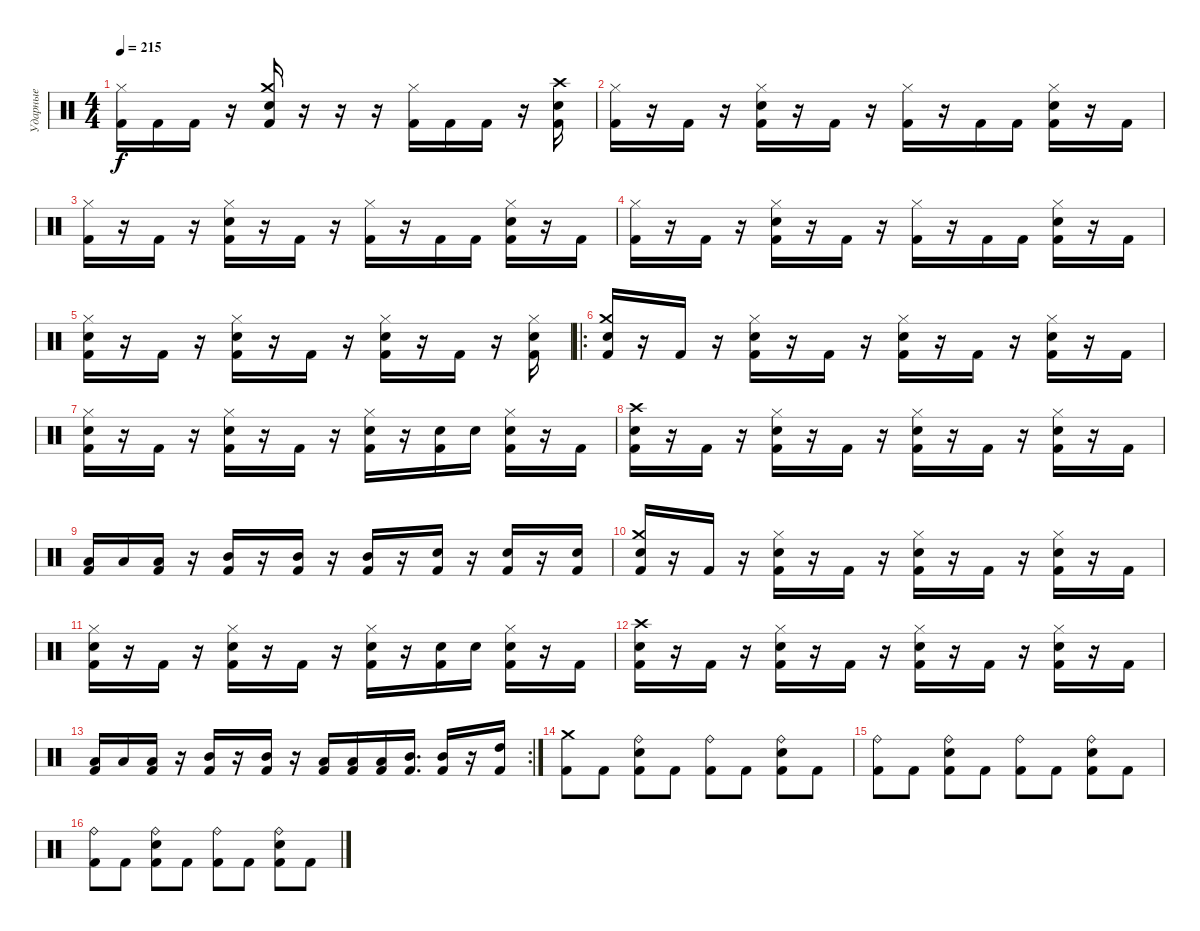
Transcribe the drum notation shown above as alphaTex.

\track ("Ударные" "Ударные") {instrument percussion}
\staff {score}
\articulation defaults
\ts (4 4)
\tempo 215
\clef neutral
\ks c
("Hi-Hat (closed)" "Kick (hit) 2").16{dy f} "Kick (hit) 2".16 "Kick (hit) 2".16 r.16 ("Crash medium (hit)" "Snare (hit) 2" "Kick (hit) 2").16 r.16 r.16 r.16 ("Hi-Hat (closed)" "Kick (hit) 2").16 "Kick (hit) 2".16 "Kick (hit) 2".16 r.16 ("Crash high (hit)" "Snare (hit) 2" "Kick (hit) 2").16 |
("Hi-Hat (closed)" "Kick (hit) 2").16 r.16 "Kick (hit) 2".16 r.16 ("Hi-Hat (closed)" "Snare (hit) 2" "Kick (hit) 2").16 r.16 "Kick (hit) 2".16 r.16 ("Hi-Hat (closed)" "Kick (hit) 2").16 r.16 "Kick (hit) 2".16 "Kick (hit) 2".16 ("Hi-Hat (closed)" "Snare (hit) 2" "Kick (hit) 2").16 r.16 "Kick (hit) 2".16 |
("Hi-Hat (closed)" "Kick (hit) 2").16 r.16 "Kick (hit) 2".16 r.16 ("Hi-Hat (closed)" "Snare (hit) 2" "Kick (hit) 2").16 r.16 "Kick (hit) 2".16 r.16 ("Hi-Hat (closed)" "Kick (hit) 2").16 r.16 "Kick (hit) 2".16 "Kick (hit) 2".16 ("Hi-Hat (closed)" "Snare (hit) 2" "Kick (hit) 2").16 r.16 "Kick (hit) 2".16 |
("Hi-Hat (closed)" "Kick (hit) 2").16 r.16 "Kick (hit) 2".16 r.16 ("Hi-Hat (closed)" "Snare (hit) 2" "Kick (hit) 2").16 r.16 "Kick (hit) 2".16 r.16 ("Hi-Hat (closed)" "Kick (hit) 2").16 r.16 "Kick (hit) 2".16 "Kick (hit) 2".16 ("Hi-Hat (closed)" "Snare (hit) 2" "Kick (hit) 2").16 r.16 "Kick (hit) 2".16 |
("Hi-Hat (closed)" "Snare (hit) 2" "Kick (hit) 2").16 r.16 "Kick (hit) 2".16 r.16 ("Hi-Hat (closed)" "Snare (hit) 2" "Kick (hit) 2").16 r.16 "Kick (hit) 2".16 r.16 ("Hi-Hat (closed)" "Snare (hit) 2" "Kick (hit) 2").16 r.16 "Kick (hit) 2".16 r.16 ("Hi-Hat (closed)" "Snare (hit) 2" "Kick (hit) 2").16 |
\ro
("Crash medium (hit)" "Snare (hit) 2" "Kick (hit) 2").16 r.16 "Kick (hit) 2".16 r.16 ("Hi-Hat (closed)" "Snare (hit) 2" "Kick (hit) 2").16 r.16 "Kick (hit) 2".16 r.16 ("Hi-Hat (closed)" "Snare (hit) 2" "Kick (hit) 2").16 r.16 "Kick (hit) 2".16 r.16 ("Hi-Hat (closed)" "Snare (hit) 2" "Kick (hit) 2").16 r.16 "Kick (hit) 2".16 |
("Hi-Hat (closed)" "Snare (hit) 2" "Kick (hit) 2").16 r.16 "Kick (hit) 2".16 r.16 ("Hi-Hat (closed)" "Snare (hit) 2" "Kick (hit) 2").16 r.16 "Kick (hit) 2".16 r.16 ("Hi-Hat (closed)" "Snare (hit) 2" "Kick (hit) 2").16 r.16 ("Snare (hit) 2" "Kick (hit) 2").16 "Snare (hit) 2".16 ("Hi-Hat (closed)" "Snare (hit) 2" "Kick (hit) 2").16 r.16 "Kick (hit) 2".16 |
("Crash high (hit)" "Snare (hit) 2" "Kick (hit) 2").16 r.16 "Kick (hit) 2".16 r.16 ("Hi-Hat (closed)" "Snare (hit) 2" "Kick (hit) 2").16 r.16 "Kick (hit) 2".16 r.16 ("Hi-Hat (closed)" "Snare (hit) 2" "Kick (hit) 2").16 r.16 "Kick (hit) 2".16 r.16 ("Hi-Hat (closed)" "Snare (hit) 2" "Kick (hit) 2").16 r.16 "Kick (hit) 2".16 |
("Low Tom (hit)" "Kick (hit) 2").16 "Low Tom (hit)".16 ("Low Tom (hit)" "Kick (hit) 2").16 r.16 ("Mid Tom (hit)" "Kick (hit) 2").16 r.16 ("Mid Tom (hit)" "Kick (hit) 2").16 r.16 ("Mid Tom (hit)" "Kick (hit) 2").16 r.16 ("Snare (hit) 2" "Kick (hit) 2").16 r.16 ("Snare (hit) 2" "Kick (hit) 2").16 r.16 ("Snare (hit) 2" "Kick (hit) 2").16 |
("Crash medium (hit)" "Snare (hit) 2" "Kick (hit) 2").16 r.16 "Kick (hit) 2".16 r.16 ("Hi-Hat (closed)" "Snare (hit) 2" "Kick (hit) 2").16 r.16 "Kick (hit) 2".16 r.16 ("Hi-Hat (closed)" "Snare (hit) 2" "Kick (hit) 2").16 r.16 "Kick (hit) 2".16 r.16 ("Hi-Hat (closed)" "Snare (hit) 2" "Kick (hit) 2").16 r.16 "Kick (hit) 2".16 |
("Hi-Hat (closed)" "Snare (hit) 2" "Kick (hit) 2").16 r.16 "Kick (hit) 2".16 r.16 ("Hi-Hat (closed)" "Snare (hit) 2" "Kick (hit) 2").16 r.16 "Kick (hit) 2".16 r.16 ("Hi-Hat (closed)" "Snare (hit) 2" "Kick (hit) 2").16 r.16 ("Snare (hit) 2" "Kick (hit) 2").16 "Snare (hit) 2".16 ("Hi-Hat (closed)" "Snare (hit) 2" "Kick (hit) 2").16 r.16 "Kick (hit) 2".16 |
("Crash high (hit)" "Snare (hit) 2" "Kick (hit) 2").16 r.16 "Kick (hit) 2".16 r.16 ("Hi-Hat (closed)" "Snare (hit) 2" "Kick (hit) 2").16 r.16 "Kick (hit) 2".16 r.16 ("Hi-Hat (closed)" "Snare (hit) 2" "Kick (hit) 2").16 r.16 "Kick (hit) 2".16 r.16 ("Hi-Hat (closed)" "Snare (hit) 2" "Kick (hit) 2").16 r.16 "Kick (hit) 2".16 |
\rc 2
("Low Tom (hit)" "Kick (hit) 2").16 "Low Tom (hit)".16 ("Low Tom (hit)" "Kick (hit) 2").16 r.16 ("Mid Tom (hit)" "Kick (hit) 2").16 r.16 ("Mid Tom (hit)" "Kick (hit) 2").16 r.16 ("Low Tom (hit)" "Kick (hit) 2").16 ("Low Tom (hit)" "Kick (hit) 2").16 ("Low Tom (hit)" "Kick (hit) 2").16 ("Mid Tom (hit)" "Kick (hit) 2").16{d} ("Mid Tom (hit)" "Kick (hit) 2").16 r.16 ("High Tom (hit)" "Kick (hit) 2").16 |
("Crash medium (hit)" "Kick (hit) 2").8 "Kick (hit) 2".8 ("Ride (bell)" "Snare (hit) 2" "Kick (hit) 2").8 "Kick (hit) 2".8 ("Ride (bell)" "Kick (hit) 2").8 "Kick (hit) 2".8 ("Ride (bell)" "Snare (hit) 2" "Kick (hit) 2").8 "Kick (hit) 2".8 |
("Ride (bell)" "Kick (hit) 2").8 "Kick (hit) 2".8 ("Ride (bell)" "Snare (hit) 2" "Kick (hit) 2").8 "Kick (hit) 2".8 ("Ride (bell)" "Kick (hit) 2").8 "Kick (hit) 2".8 ("Ride (bell)" "Snare (hit) 2" "Kick (hit) 2").8 "Kick (hit) 2".8 |
("Ride (bell)" "Kick (hit) 2").8 "Kick (hit) 2".8 ("Ride (bell)" "Snare (hit) 2" "Kick (hit) 2").8 "Kick (hit) 2".8 ("Ride (bell)" "Kick (hit) 2").8 "Kick (hit) 2".8 ("Ride (bell)" "Snare (hit) 2" "Kick (hit) 2").8 "Kick (hit) 2".8
